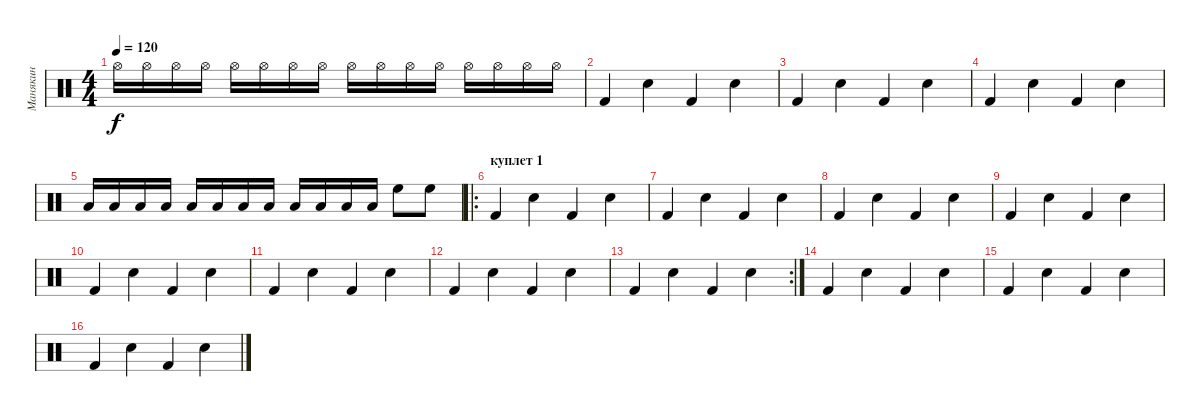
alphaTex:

\track ("Манякин" "Манякин") {instrument percussion}
\staff {score}
\articulation defaults
\ts (4 4)
\tempo 120
\clef neutral
\ks c "Hi-Hat (open)".16{dy f} "Hi-Hat (open)".16 "Hi-Hat (open)".16 "Hi-Hat (open)".16 "Hi-Hat (open)".16 "Hi-Hat (open)".16 "Hi-Hat (open)".16 "Hi-Hat (open)".16 "Hi-Hat (open)".16 "Hi-Hat (open)".16 "Hi-Hat (open)".16 "Hi-Hat (open)".16 "Hi-Hat (open)".16 "Hi-Hat (open)".16 "Hi-Hat (open)".16 "Hi-Hat (open)".16
|
"Kick (hit) 2".4 "Snare (hit) 2".4 "Kick (hit) 2".4 "Snare (hit) 2".4 |
"Kick (hit) 2".4 "Snare (hit) 2".4 "Kick (hit) 2".4 "Snare (hit) 2".4 |
"Kick (hit) 2".4 "Snare (hit) 2".4 "Kick (hit) 2".4 "Snare (hit) 2".4 |
"Low Tom (hit)".16 "Low Tom (hit)".16 "Low Tom (hit)".16 "Low Tom (hit)".16 "Low Tom (hit)".16 "Low Tom (hit)".16 "Low Tom (hit)".16 "Low Tom (hit)".16 "Low Tom (hit)".16 "Low Tom (hit)".16 "Low Tom (hit)".16 "Low Tom (hit)".16 "High Floor Tom (hit)".8 "High Floor Tom (hit)".8 |
\ro
\section ("" "куплет 1")
"Kick (hit) 2".4 "Snare (hit) 2".4 "Kick (hit) 2".4 "Snare (hit) 2".4 |
"Kick (hit) 2".4 "Snare (hit) 2".4 "Kick (hit) 2".4 "Snare (hit) 2".4 |
"Kick (hit) 2".4 "Snare (hit) 2".4 "Kick (hit) 2".4 "Snare (hit) 2".4 |
"Kick (hit) 2".4 "Snare (hit) 2".4 "Kick (hit) 2".4 "Snare (hit) 2".4 |
"Kick (hit) 2".4 "Snare (hit) 2".4 "Kick (hit) 2".4 "Snare (hit) 2".4 |
"Kick (hit) 2".4 "Snare (hit) 2".4 "Kick (hit) 2".4 "Snare (hit) 2".4 |
"Kick (hit) 2".4 "Snare (hit) 2".4 "Kick (hit) 2".4 "Snare (hit) 2".4 |
\rc 2 "Kick (hit) 2".4 "Snare (hit) 2".4 "Kick (hit) 2".4 "Snare (hit) 2".4
|
"Kick (hit) 2".4 "Snare (hit) 2".4 "Kick (hit) 2".4 "Snare (hit) 2".4 |
"Kick (hit) 2".4 "Snare (hit) 2".4 "Kick (hit) 2".4 "Snare (hit) 2".4 |
"Kick (hit) 2".4 "Snare (hit) 2".4 "Kick (hit) 2".4 "Snare (hit) 2".4
